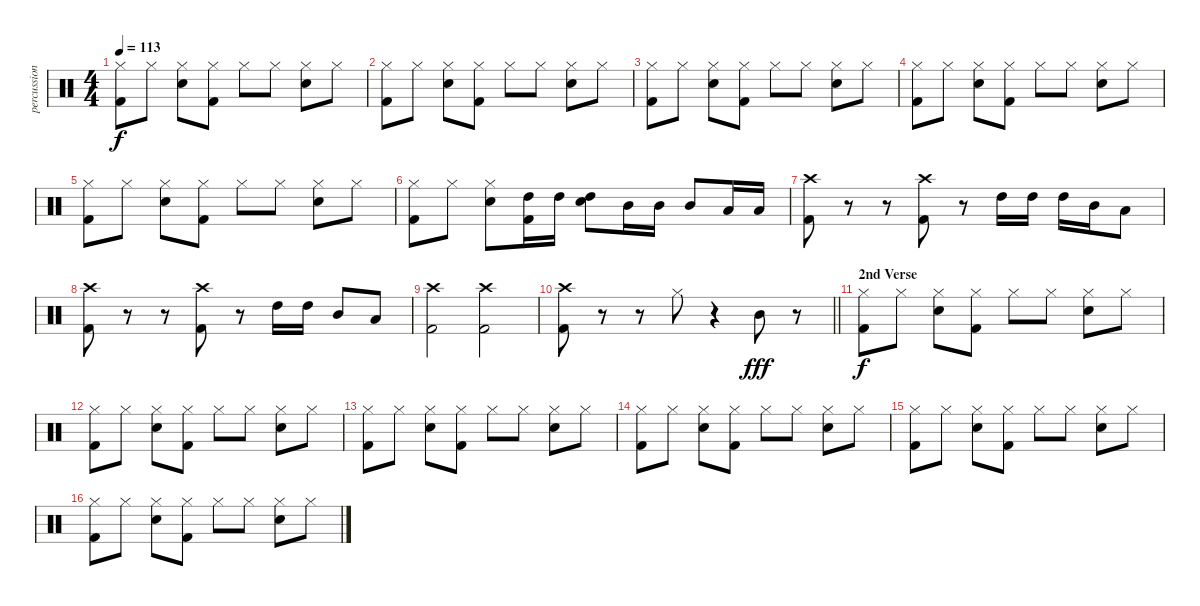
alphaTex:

\track ("percussion" "percussion") {instrument percussion}
\staff {score}
\articulation defaults
\ts (4 4)
\tempo 113
\clef neutral
\ks c
("Hi-Hat (closed)" "Kick (hit) 2").8{dy f} "Hi-Hat (closed)".8 ("Snare (hit) 2" "Hi-Hat (closed)").8 ("Hi-Hat (closed)" "Kick (hit) 2").8 "Hi-Hat (closed)".8 "Hi-Hat (closed)".8 ("Snare (hit) 2" "Hi-Hat (closed)").8 "Hi-Hat (closed)".8 |
("Hi-Hat (closed)" "Kick (hit) 2").8 "Hi-Hat (closed)".8 ("Snare (hit) 2" "Hi-Hat (closed)").8 ("Hi-Hat (closed)" "Kick (hit) 2").8 "Hi-Hat (closed)".8 "Hi-Hat (closed)".8 ("Snare (hit) 2" "Hi-Hat (closed)").8 "Hi-Hat (closed)".8 |
("Hi-Hat (closed)" "Kick (hit) 2").8 "Hi-Hat (closed)".8 ("Snare (hit) 2" "Hi-Hat (closed)").8 ("Hi-Hat (closed)" "Kick (hit) 2").8 "Hi-Hat (closed)".8 "Hi-Hat (closed)".8 ("Snare (hit) 2" "Hi-Hat (closed)").8 "Hi-Hat (closed)".8 |
("Hi-Hat (closed)" "Kick (hit) 2").8 "Hi-Hat (closed)".8 ("Snare (hit) 2" "Hi-Hat (closed)").8 ("Hi-Hat (closed)" "Kick (hit) 2").8 "Hi-Hat (closed)".8 "Hi-Hat (closed)".8 ("Snare (hit) 2" "Hi-Hat (closed)").8 "Hi-Hat (closed)".8 |
("Hi-Hat (closed)" "Kick (hit) 2").8 "Hi-Hat (closed)".8 ("Snare (hit) 2" "Hi-Hat (closed)").8 ("Hi-Hat (closed)" "Kick (hit) 2").8 "Hi-Hat (closed)".8 "Hi-Hat (closed)".8 ("Snare (hit) 2" "Hi-Hat (closed)").8 "Hi-Hat (closed)".8 |
("Hi-Hat (closed)" "Kick (hit) 2").8 "Hi-Hat (closed)".8 ("Snare (hit) 2" "Hi-Hat (closed)").8 ("High Tom (hit)" "Kick (hit) 2").16 "High Tom (hit)".16 ("High Tom (hit)" "Snare (hit) 2").8 "Mid Tom (hit)".16 "Mid Tom (hit)".16 "Mid Tom (hit)".8 "Low Tom (hit)".16 "Low Tom (hit)".16 |
("Crash high (hit)" "Kick (hit) 2").8 r.8 r.8 ("Crash high (hit)" "Kick (hit) 2").8 r.8 "High Tom (hit)".16 "High Tom (hit)".16 "High Tom (hit)".16 "Mid Tom (hit)".16 "Low Tom (hit)".8 |
("Crash high (hit)" "Kick (hit) 2").8 r.8 r.8 ("Crash high (hit)" "Kick (hit) 2").8 r.8 "High Tom (hit)".16 "High Tom (hit)".16 "Mid Tom (hit)".8 "Low Tom (hit)".8 |
("Crash high (hit)" "Kick (hit) 2").2 ("Crash high (hit)" "Kick (hit) 2").2 |
\barLineRight lightlight
("Crash high (hit)" "Kick (hit) 2").8 r.8 r.8 "Hi-Hat (closed)".8 r.4 "Mid Tom (hit)".8{dy fff} r.8 |
\section ("" "2nd Verse")
("Hi-Hat (closed)" "Kick (hit) 2").8{dy f} "Hi-Hat (closed)".8 ("Snare (hit) 2" "Hi-Hat (closed)").8 ("Hi-Hat (closed)" "Kick (hit) 2").8 "Hi-Hat (closed)".8 "Hi-Hat (closed)".8 ("Snare (hit) 2" "Hi-Hat (closed)").8 "Hi-Hat (closed)".8 |
("Hi-Hat (closed)" "Kick (hit) 2").8 "Hi-Hat (closed)".8 ("Snare (hit) 2" "Hi-Hat (closed)").8 ("Hi-Hat (closed)" "Kick (hit) 2").8 "Hi-Hat (closed)".8 "Hi-Hat (closed)".8 ("Snare (hit) 2" "Hi-Hat (closed)").8 "Hi-Hat (closed)".8 |
("Hi-Hat (closed)" "Kick (hit) 2").8 "Hi-Hat (closed)".8 ("Snare (hit) 2" "Hi-Hat (closed)").8 ("Hi-Hat (closed)" "Kick (hit) 2").8 "Hi-Hat (closed)".8 "Hi-Hat (closed)".8 ("Snare (hit) 2" "Hi-Hat (closed)").8 "Hi-Hat (closed)".8 |
("Hi-Hat (closed)" "Kick (hit) 2").8 "Hi-Hat (closed)".8 ("Snare (hit) 2" "Hi-Hat (closed)").8 ("Hi-Hat (closed)" "Kick (hit) 2").8 "Hi-Hat (closed)".8 "Hi-Hat (closed)".8 ("Snare (hit) 2" "Hi-Hat (closed)").8 "Hi-Hat (closed)".8 |
("Hi-Hat (closed)" "Kick (hit) 2").8 "Hi-Hat (closed)".8 ("Snare (hit) 2" "Hi-Hat (closed)").8 ("Hi-Hat (closed)" "Kick (hit) 2").8 "Hi-Hat (closed)".8 "Hi-Hat (closed)".8 ("Snare (hit) 2" "Hi-Hat (closed)").8 "Hi-Hat (closed)".8 |
("Hi-Hat (closed)" "Kick (hit) 2").8 "Hi-Hat (closed)".8 ("Snare (hit) 2" "Hi-Hat (closed)").8 ("Hi-Hat (closed)" "Kick (hit) 2").8 "Hi-Hat (closed)".8 "Hi-Hat (closed)".8 ("Snare (hit) 2" "Hi-Hat (closed)").8 "Hi-Hat (closed)".8
